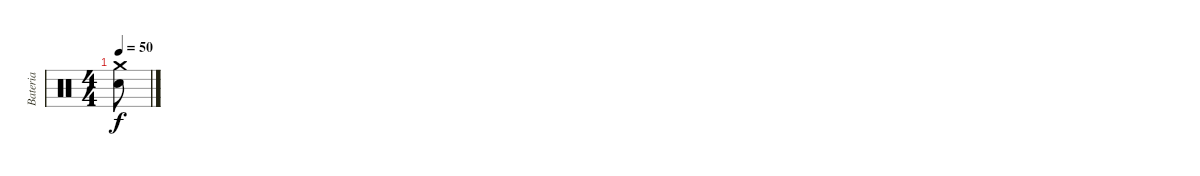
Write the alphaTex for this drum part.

\track ("Bateria" "Bateria") {instrument percussion bank 1}
\staff {score}
\articulation defaults
\ts (4 4)
\tempo 50
\clef neutral
\ks c
("Electric Snare (hit)" "Crash medium (hit)").8{dy f}
